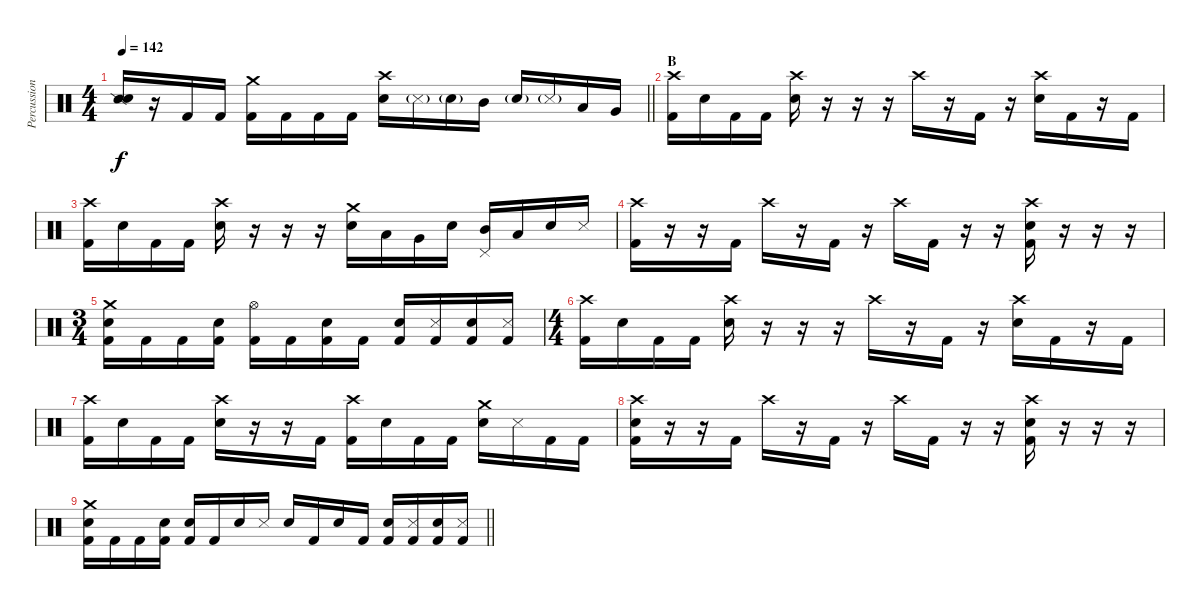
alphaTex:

\track ("Percussion" "Percussion") {instrument percussion}
\staff {score}
\articulation defaults
\ts (4 4)
\tempo 142
\clef neutral
\barLineRight lightlight
\ks c
("Snare (side stick) 2" "Snare (hit) 2").16{dy f} r.16 "Kick (hit) 2".16 "Kick (hit) 2".16 ("Crash medium (hit)" "Kick (hit) 2").16 "Kick (hit) 2".16 "Kick (hit) 2".16 "Kick (hit) 2".16 ("Crash high (hit)" "Snare (hit) 2").16 "Metronome (hit)"{g}.16 "Snare (hit) 2"{g}.16 "Mid Tom (hit)".16 "Snare (hit) 2"{g}.16 "Metronome (hit)"{g}.16 "Low Tom (hit)".16 "Very Low Tom (hit)".16 |
\section ("" "B")
("Crash high (hit)" "Kick (hit) 2").16 "Snare (hit) 2".16 "Kick (hit) 2".16 "Kick (hit) 2".16 ("Crash high (hit)" "Snare (hit) 2").16 r.16 r.16 r.16 "Crash high (hit)".16 r.16 "Kick (hit) 2".16 r.16 ("Crash high (hit)" "Snare (hit) 2").16 "Kick (hit) 2".16 r.16 "Kick (hit) 2".16 |
("Crash high (hit)" "Kick (hit) 2").16 "Snare (hit) 2".16 "Kick (hit) 2".16 "Kick (hit) 2".16 ("Crash high (hit)" "Snare (hit) 2").16 r.16 r.16 r.16 ("Crash medium (hit)" "Snare (hit) 2").16 "Low Tom (hit)".16 "Very Low Tom (hit)".16 "Snare (hit) 2".16 ("Pedal Hi-Hat (hit)" "Mid Tom (hit)").16 "Low Tom (hit)".16 "Snare (hit) 2".16 "Metronome (hit)".16 |
("Crash high (hit)" "Kick (hit) 2").16 r.16 r.16 "Kick (hit) 2".16 "Crash high (hit)".16 r.16 "Kick (hit) 2".16 r.16 "Crash high (hit)".16 "Kick (hit) 2".16 r.16 r.16 ("Crash high (hit)" "Snare (hit) 2" "Kick (hit) 2").16 r.16 r.16 r.16 |
\ts (3 4)
("Crash medium (hit)" "Snare (hit) 2" "Kick (hit) 2").16 "Kick (hit) 2".16 "Kick (hit) 2".16 ("Snare (hit) 2" "Kick (hit) 2").16 ("Hi-Hat (open)" "Kick (hit) 2").16 "Kick (hit) 2".16 ("Snare (hit) 2" "Kick (hit) 2").16 "Kick (hit) 2".16 ("Snare (hit) 2" "Kick (hit) 2").16 ("Metronome (hit)" "Kick (hit) 2").16 ("Snare (hit) 2" "Kick (hit) 2").16 ("Metronome (hit)" "Kick (hit) 2").16 |
\ts (4 4)
("Crash high (hit)" "Kick (hit) 2").16 "Snare (hit) 2".16 "Kick (hit) 2".16 "Kick (hit) 2".16 ("Crash high (hit)" "Snare (hit) 2").16 r.16 r.16 r.16 "Crash high (hit)".16 r.16 "Kick (hit) 2".16 r.16 ("Crash high (hit)" "Snare (hit) 2").16 "Kick (hit) 2".16 r.16 "Kick (hit) 2".16 |
("Crash high (hit)" "Kick (hit) 2").16 "Snare (hit) 2".16 "Kick (hit) 2".16 "Kick (hit) 2".16 ("Crash high (hit)" "Snare (hit) 2").16 r.16 r.16 "Kick (hit) 2".16 ("Crash high (hit)" "Kick (hit) 2").16 "Snare (hit) 2".16 "Kick (hit) 2".16 "Kick (hit) 2".16 ("Crash medium (hit)" "Snare (hit) 2").16 "Metronome (hit)".16 "Kick (hit) 2".16 "Kick (hit) 2".16 |
("Crash high (hit)" "Snare (hit) 2" "Kick (hit) 2").16 r.16 r.16 "Kick (hit) 2".16 "Crash high (hit)".16 r.16 "Kick (hit) 2".16 r.16 "Crash high (hit)".16 "Kick (hit) 2".16 r.16 r.16 ("Crash high (hit)" "Snare (hit) 2" "Kick (hit) 2").16 r.16 r.16 r.16 |
\barLineRight lightlight
("Crash medium (hit)" "Snare (hit) 2" "Kick (hit) 2").16 "Kick (hit) 2".16 "Kick (hit) 2".16 ("Snare (hit) 2" "Kick (hit) 2").16 ("Snare (hit)" "Kick (hit) 2").16 "Kick (hit) 2".16 "Snare (hit) 2".16 "Metronome (hit)".16 "Snare (hit) 2".16 "Kick (hit) 2".16 "Snare (hit) 2".16 "Kick (hit) 2".16 ("Snare (hit) 2" "Kick (hit) 2").16 ("Metronome (hit)" "Kick (hit) 2").16 ("Snare (hit) 2" "Kick (hit) 2").16 ("Metronome (hit)" "Kick (hit) 2").16
